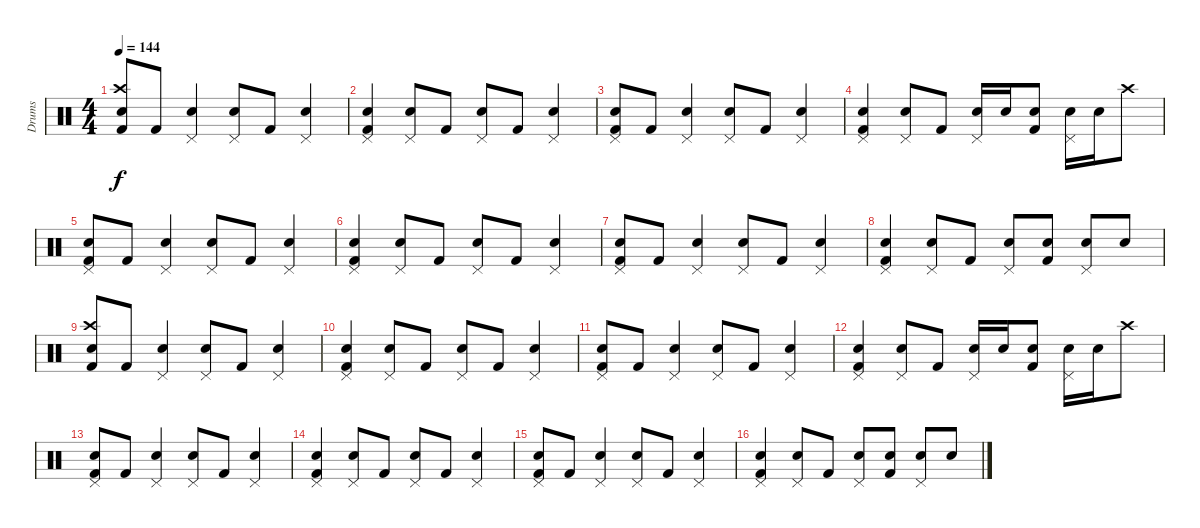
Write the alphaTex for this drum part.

\track ("Drums" "Drums") {instrument percussion}
\staff {score}
\articulation defaults
\ts (4 4)
\tempo 144
\clef neutral
\ks c
("Electric Snare (hit)" "Crash high (hit)" "Kick (hit) 2").8{dy f} "Kick (hit) 2".8 ("Electric Snare (hit)" "Pedal Hi-Hat (hit)").4 ("Electric Snare (hit)" "Pedal Hi-Hat (hit)").8 "Kick (hit) 2".8 ("Pedal Hi-Hat (hit)" "Electric Snare (hit)").4 |
("Electric Snare (hit)" "Kick (hit) 2" "Pedal Hi-Hat (hit)").4 ("Electric Snare (hit)" "Pedal Hi-Hat (hit)").8 "Kick (hit) 2".8 ("Electric Snare (hit)" "Pedal Hi-Hat (hit)").8 "Kick (hit) 2".8 ("Electric Snare (hit)" "Pedal Hi-Hat (hit)").4 |
("Electric Snare (hit)" "Pedal Hi-Hat (hit)" "Kick (hit) 2").8 "Kick (hit) 2".8 ("Pedal Hi-Hat (hit)" "Electric Snare (hit)").4 ("Electric Snare (hit)" "Pedal Hi-Hat (hit)").8 "Kick (hit) 2".8 ("Pedal Hi-Hat (hit)" "Electric Snare (hit)").4 |
("Electric Snare (hit)" "Kick (hit) 2" "Pedal Hi-Hat (hit)").4 ("Electric Snare (hit)" "Pedal Hi-Hat (hit)").8 "Kick (hit) 2".8 ("Electric Snare (hit)" "Pedal Hi-Hat (hit)").16 "Electric Snare (hit)".16 ("Electric Snare (hit)" "Kick (hit) 2").8 ("Electric Snare (hit)" "Pedal Hi-Hat (hit)").16 "Electric Snare (hit)".16 "Crash high (hit)".8 |
("Electric Snare (hit)" "Pedal Hi-Hat (hit)" "Kick (hit) 2").8 "Kick (hit) 2".8 ("Pedal Hi-Hat (hit)" "Electric Snare (hit)").4 ("Electric Snare (hit)" "Pedal Hi-Hat (hit)").8 "Kick (hit) 2".8 ("Pedal Hi-Hat (hit)" "Electric Snare (hit)").4 |
("Electric Snare (hit)" "Kick (hit) 2" "Pedal Hi-Hat (hit)").4 ("Electric Snare (hit)" "Pedal Hi-Hat (hit)").8 "Kick (hit) 2".8 ("Electric Snare (hit)" "Pedal Hi-Hat (hit)").8 "Kick (hit) 2".8 ("Electric Snare (hit)" "Pedal Hi-Hat (hit)").4 |
("Electric Snare (hit)" "Pedal Hi-Hat (hit)" "Kick (hit) 2").8 "Kick (hit) 2".8 ("Pedal Hi-Hat (hit)" "Electric Snare (hit)").4 ("Electric Snare (hit)" "Pedal Hi-Hat (hit)").8 "Kick (hit) 2".8 ("Pedal Hi-Hat (hit)" "Electric Snare (hit)").4 |
("Electric Snare (hit)" "Kick (hit) 2" "Pedal Hi-Hat (hit)").4 ("Electric Snare (hit)" "Pedal Hi-Hat (hit)").8 "Kick (hit) 2".8 ("Electric Snare (hit)" "Pedal Hi-Hat (hit)").8 ("Electric Snare (hit)" "Kick (hit) 2").8 ("Electric Snare (hit)" "Pedal Hi-Hat (hit)").8 "Electric Snare (hit)".8 |
("Electric Snare (hit)" "Crash high (hit)" "Kick (hit) 2").8 "Kick (hit) 2".8 ("Pedal Hi-Hat (hit)" "Electric Snare (hit)").4 ("Electric Snare (hit)" "Pedal Hi-Hat (hit)").8 "Kick (hit) 2".8 ("Pedal Hi-Hat (hit)" "Electric Snare (hit)").4 |
("Electric Snare (hit)" "Kick (hit) 2" "Pedal Hi-Hat (hit)").4 ("Electric Snare (hit)" "Pedal Hi-Hat (hit)").8 "Kick (hit) 2".8 ("Electric Snare (hit)" "Pedal Hi-Hat (hit)").8 "Kick (hit) 2".8 ("Electric Snare (hit)" "Pedal Hi-Hat (hit)").4 |
("Electric Snare (hit)" "Pedal Hi-Hat (hit)" "Kick (hit) 2").8 "Kick (hit) 2".8 ("Pedal Hi-Hat (hit)" "Electric Snare (hit)").4 ("Electric Snare (hit)" "Pedal Hi-Hat (hit)").8 "Kick (hit) 2".8 ("Pedal Hi-Hat (hit)" "Electric Snare (hit)").4 |
("Electric Snare (hit)" "Kick (hit) 2" "Pedal Hi-Hat (hit)").4 ("Electric Snare (hit)" "Pedal Hi-Hat (hit)").8 "Kick (hit) 2".8 ("Electric Snare (hit)" "Pedal Hi-Hat (hit)").16 "Electric Snare (hit)".16 ("Electric Snare (hit)" "Kick (hit) 2").8 ("Electric Snare (hit)" "Pedal Hi-Hat (hit)").16 "Electric Snare (hit)".16 "Crash high (hit)".8 |
("Electric Snare (hit)" "Pedal Hi-Hat (hit)" "Kick (hit) 2").8 "Kick (hit) 2".8 ("Pedal Hi-Hat (hit)" "Electric Snare (hit)").4 ("Electric Snare (hit)" "Pedal Hi-Hat (hit)").8 "Kick (hit) 2".8 ("Pedal Hi-Hat (hit)" "Electric Snare (hit)").4 |
("Electric Snare (hit)" "Kick (hit) 2" "Pedal Hi-Hat (hit)").4 ("Electric Snare (hit)" "Pedal Hi-Hat (hit)").8 "Kick (hit) 2".8 ("Electric Snare (hit)" "Pedal Hi-Hat (hit)").8 "Kick (hit) 2".8 ("Electric Snare (hit)" "Pedal Hi-Hat (hit)").4 |
("Electric Snare (hit)" "Pedal Hi-Hat (hit)" "Kick (hit) 2").8 "Kick (hit) 2".8 ("Pedal Hi-Hat (hit)" "Electric Snare (hit)").4 ("Electric Snare (hit)" "Pedal Hi-Hat (hit)").8 "Kick (hit) 2".8 ("Pedal Hi-Hat (hit)" "Electric Snare (hit)").4 |
("Electric Snare (hit)" "Kick (hit) 2" "Pedal Hi-Hat (hit)").4 ("Electric Snare (hit)" "Pedal Hi-Hat (hit)").8 "Kick (hit) 2".8 ("Electric Snare (hit)" "Pedal Hi-Hat (hit)").8 ("Electric Snare (hit)" "Kick (hit) 2").8 ("Electric Snare (hit)" "Pedal Hi-Hat (hit)").8 "Electric Snare (hit)".8
